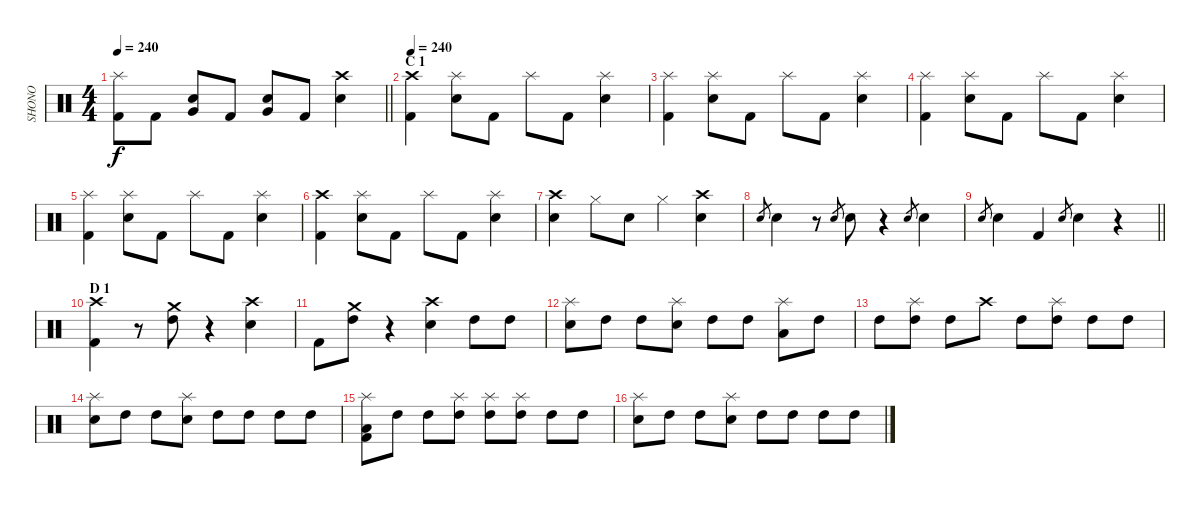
\track ("SHONO" "SHONO") {instrument percussion}
\staff {score}
\articulation defaults
\ts (4 4)
\tempo 240
\clef neutral
\barLineRight lightlight
\ks c
("Splash (hit)" "Kick (hit) 2").8{dy f} "Kick (hit) 2".8 ("Snare (hit) 2" "Very Low Tom (hit)").8 "Kick (hit) 2".8 ("Snare (hit) 2" "Very Low Tom (hit)").8 "Kick (hit) 2".8 ("Crash high (hit)" "Snare (hit) 2").4 |
\section ("" "C 1")
\tempo 240
("Crash high (hit)" "Kick (hit) 2").4 ("Splash (hit)" "Snare (hit) 2").8 "Kick (hit) 2".8 "Splash (hit)".8 "Kick (hit) 2".8 ("Splash (hit)" "Snare (hit) 2").4 |
("Splash (hit)" "Kick (hit) 2").4 ("Splash (hit)" "Snare (hit) 2").8 "Kick (hit) 2".8 "Splash (hit)".8 "Kick (hit) 2".8 ("Splash (hit)" "Snare (hit) 2").4 |
("Splash (hit)" "Kick (hit) 2").4 ("Splash (hit)" "Snare (hit) 2").8 "Kick (hit) 2".8 "Splash (hit)".8 "Kick (hit) 2".8 ("Splash (hit)" "Snare (hit) 2").4 |
("Splash (hit)" "Kick (hit) 2").4 ("Splash (hit)" "Snare (hit) 2").8 "Kick (hit) 2".8 "Splash (hit)".8 "Kick (hit) 2".8 ("Splash (hit)" "Snare (hit) 2").4 |
("Crash high (hit)" "Kick (hit) 2").4 ("Splash (hit)" "Snare (hit) 2").8 "Kick (hit) 2".8 "Splash (hit)".8 "Kick (hit) 2".8 ("Splash (hit)" "Snare (hit) 2").4 |
("Crash high (hit)" "Snare (hit) 2").4 "Hi-Hat (closed)".8 "Snare (hit) 2".8 "Hi-Hat (closed)".4 ("Crash high (hit)" "Snare (hit) 2").4 |
"Snare (hit) 2".8{gr} "Snare (hit) 2".4 r.8 "Snare (hit) 2".8{gr} "Snare (hit) 2".8 r.4 "Snare (hit) 2".8{gr} "Snare (hit) 2".4 |
\barLineRight lightlight "Snare (hit) 2".8{gr} "Snare (hit) 2".4 "Kick (hit) 2".4 "Snare (hit) 2".8{gr} "Snare (hit) 2".4
r.4 |
\section ("" "D 1")
("Crash high (hit)" "Kick (hit) 2").4 r.8 ("Crash medium (hit)" "High Tom (hit)").8 r.4 ("Crash high (hit)" "Snare (hit) 2").4 |
"Kick (hit) 2".8 ("Crash medium (hit)" "High Tom (hit)").8 r.4 ("Crash high (hit)" "Snare (hit) 2").4 "High Tom (hit)".8 "High Tom (hit)".8 |
("Splash (hit)" "Snare (hit) 2").8 "High Tom (hit)".8 "High Tom (hit)".8 ("Splash (hit)" "Snare (hit) 2").8 "High Tom (hit)".8 "High Tom (hit)".8 ("Splash (hit)" "Low Floor Tom (hit)").8 "High Tom (hit)".8 |
"High Tom (hit)".8 ("Splash (hit)" "High Tom (hit)").8 "High Tom (hit)".8 "Crash high (hit)".8 "High Tom (hit)".8 ("Splash (hit)" "High Tom (hit)").8 "High Tom (hit)".8 "High Tom (hit)".8 |
("Splash (hit)" "Snare (hit) 2").8 "High Tom (hit)".8 "High Tom (hit)".8 ("Splash (hit)" "Snare (hit) 2").8 "High Tom (hit)".8 "High Tom (hit)".8 "High Tom (hit)".8 "High Tom (hit)".8 |
("Splash (hit)" "Low Floor Tom (hit)" "Kick (hit) 2").8 "High Tom (hit)".8 "High Tom (hit)".8 ("Splash (hit)" "High Tom (hit)").8 ("Splash (hit)" "High Tom (hit)").8 ("Splash (hit)" "High Tom (hit)").8 "High Tom (hit)".8 "High Tom (hit)".8 |
("Splash (hit)" "Snare (hit) 2").8 "High Tom (hit)".8 "High Tom (hit)".8 ("Splash (hit)" "Snare (hit) 2").8 "High Tom (hit)".8 "High Tom (hit)".8 "High Tom (hit)".8 "High Tom (hit)".8
